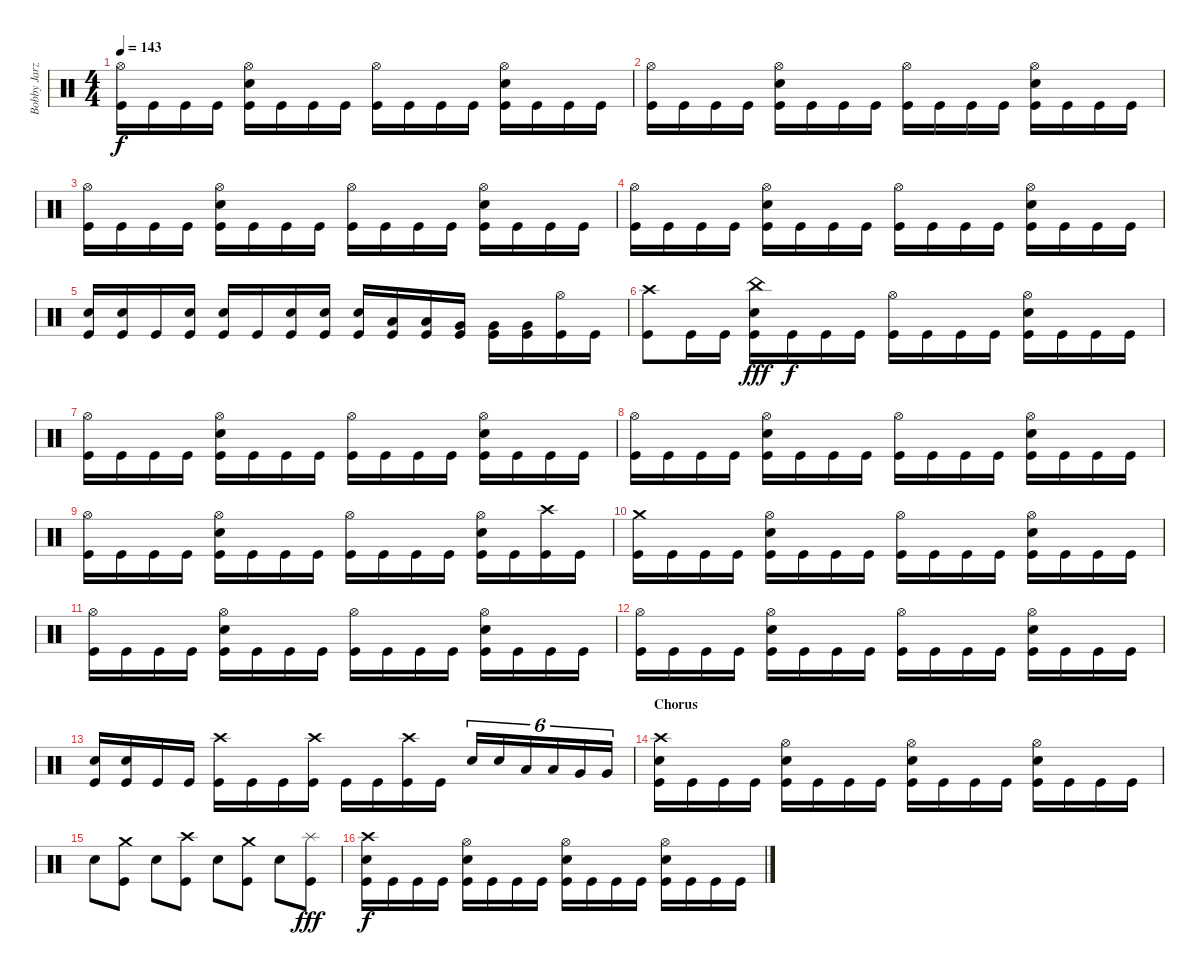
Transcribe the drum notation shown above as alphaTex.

\track ("Bobby Jarzombek" "Bobby Jarz") {instrument percussion}
\staff {score}
\articulation defaults
\ts (4 4)
\tempo 143
\clef neutral
\ks c
("Hi-Hat (open)" "Kick (hit)").16{dy f} "Kick (hit)".16 "Kick (hit)".16 "Kick (hit)".16 ("Hi-Hat (open)" "Electric Snare (hit)" "Kick (hit)").16 "Kick (hit)".16 "Kick (hit)".16 "Kick (hit)".16 ("Hi-Hat (open)" "Kick (hit)").16 "Kick (hit)".16 "Kick (hit)".16 "Kick (hit)".16 ("Hi-Hat (open)" "Electric Snare (hit)" "Kick (hit)").16 "Kick (hit)".16 "Kick (hit)".16 "Kick (hit)".16 |
("Hi-Hat (open)" "Kick (hit)").16 "Kick (hit)".16 "Kick (hit)".16 "Kick (hit)".16 ("Hi-Hat (open)" "Electric Snare (hit)" "Kick (hit)").16 "Kick (hit)".16 "Kick (hit)".16 "Kick (hit)".16 ("Hi-Hat (open)" "Kick (hit)").16 "Kick (hit)".16 "Kick (hit)".16 "Kick (hit)".16 ("Hi-Hat (open)" "Electric Snare (hit)" "Kick (hit)").16 "Kick (hit)".16 "Kick (hit)".16 "Kick (hit)".16 |
("Hi-Hat (open)" "Kick (hit)").16 "Kick (hit)".16 "Kick (hit)".16 "Kick (hit)".16 ("Hi-Hat (open)" "Electric Snare (hit)" "Kick (hit)").16 "Kick (hit)".16 "Kick (hit)".16 "Kick (hit)".16 ("Hi-Hat (open)" "Kick (hit)").16 "Kick (hit)".16 "Kick (hit)".16 "Kick (hit)".16 ("Hi-Hat (open)" "Electric Snare (hit)" "Kick (hit)").16 "Kick (hit)".16 "Kick (hit)".16 "Kick (hit)".16 |
("Hi-Hat (open)" "Kick (hit)").16 "Kick (hit)".16 "Kick (hit)".16 "Kick (hit)".16 ("Hi-Hat (open)" "Electric Snare (hit)" "Kick (hit)").16 "Kick (hit)".16 "Kick (hit)".16 "Kick (hit)".16 ("Hi-Hat (open)" "Kick (hit)").16 "Kick (hit)".16 "Kick (hit)".16 "Kick (hit)".16 ("Hi-Hat (open)" "Electric Snare (hit)" "Kick (hit)").16 "Kick (hit)".16 "Kick (hit)".16 "Kick (hit)".16 |
("Electric Snare (hit)" "Kick (hit)").16 ("Electric Snare (hit)" "Kick (hit)").16 "Kick (hit)".16 ("Electric Snare (hit)" "Kick (hit)").16 ("Electric Snare (hit)" "Kick (hit)").16 "Kick (hit)".16 ("Electric Snare (hit)" "Kick (hit)").16 ("Electric Snare (hit)" "Kick (hit)").16 ("Electric Snare (hit)" "Kick (hit)").16 ("Low Tom (hit)" "Kick (hit)").16 ("Low Tom (hit)" "Kick (hit)").16 ("Very Low Tom (hit)" "Kick (hit)").16 ("Very Low Tom (hit)" "Kick (hit)").16 ("Very Low Tom (hit)" "Kick (hit)").16 ("Hi-Hat (open)" "Kick (hit)").16 "Kick (hit)".16 |
("Crash high (hit)" "Kick (hit)").8 "Kick (hit)".16 "Kick (hit)".16 ("China (hit)" "Electric Snare (hit)" "Kick (hit)").16{dy fff} "Kick (hit)".16{dy f} "Kick (hit)".16 "Kick (hit)".16 ("Hi-Hat (open)" "Kick (hit)").16 "Kick (hit)".16 "Kick (hit)".16 "Kick (hit)".16 ("Hi-Hat (open)" "Electric Snare (hit)" "Kick (hit)").16 "Kick (hit)".16 "Kick (hit)".16 "Kick (hit)".16 |
("Hi-Hat (open)" "Kick (hit)").16 "Kick (hit)".16 "Kick (hit)".16 "Kick (hit)".16 ("Hi-Hat (open)" "Electric Snare (hit)" "Kick (hit)").16 "Kick (hit)".16 "Kick (hit)".16 "Kick (hit)".16 ("Hi-Hat (open)" "Kick (hit)").16 "Kick (hit)".16 "Kick (hit)".16 "Kick (hit)".16 ("Hi-Hat (open)" "Electric Snare (hit)" "Kick (hit)").16 "Kick (hit)".16 "Kick (hit)".16 "Kick (hit)".16 |
("Hi-Hat (open)" "Kick (hit)").16 "Kick (hit)".16 "Kick (hit)".16 "Kick (hit)".16 ("Hi-Hat (open)" "Electric Snare (hit)" "Kick (hit)").16 "Kick (hit)".16 "Kick (hit)".16 "Kick (hit)".16 ("Hi-Hat (open)" "Kick (hit)").16 "Kick (hit)".16 "Kick (hit)".16 "Kick (hit)".16 ("Hi-Hat (open)" "Electric Snare (hit)" "Kick (hit)").16 "Kick (hit)".16 "Kick (hit)".16 "Kick (hit)".16 |
("Hi-Hat (open)" "Kick (hit)").16 "Kick (hit)".16 "Kick (hit)".16 "Kick (hit)".16 ("Hi-Hat (open)" "Electric Snare (hit)" "Kick (hit)").16 "Kick (hit)".16 "Kick (hit)".16 "Kick (hit)".16 ("Hi-Hat (open)" "Kick (hit)").16 "Kick (hit)".16 "Kick (hit)".16 "Kick (hit)".16 ("Hi-Hat (open)" "Electric Snare (hit)" "Kick (hit)").16 "Kick (hit)".16 ("Crash high (hit)" "Kick (hit)").16 "Kick (hit)".16 |
("Crash medium (hit)" "Kick (hit)").16 "Kick (hit)".16 "Kick (hit)".16 "Kick (hit)".16 ("Hi-Hat (open)" "Electric Snare (hit)" "Kick (hit)").16 "Kick (hit)".16 "Kick (hit)".16 "Kick (hit)".16 ("Hi-Hat (open)" "Kick (hit)").16 "Kick (hit)".16 "Kick (hit)".16 "Kick (hit)".16 ("Hi-Hat (open)" "Electric Snare (hit)" "Kick (hit)").16 "Kick (hit)".16 "Kick (hit)".16 "Kick (hit)".16 |
("Hi-Hat (open)" "Kick (hit)").16 "Kick (hit)".16 "Kick (hit)".16 "Kick (hit)".16 ("Hi-Hat (open)" "Electric Snare (hit)" "Kick (hit)").16 "Kick (hit)".16 "Kick (hit)".16 "Kick (hit)".16 ("Hi-Hat (open)" "Kick (hit)").16 "Kick (hit)".16 "Kick (hit)".16 "Kick (hit)".16 ("Hi-Hat (open)" "Electric Snare (hit)" "Kick (hit)").16 "Kick (hit)".16 "Kick (hit)".16 "Kick (hit)".16 |
("Hi-Hat (open)" "Kick (hit)").16 "Kick (hit)".16 "Kick (hit)".16 "Kick (hit)".16 ("Hi-Hat (open)" "Electric Snare (hit)" "Kick (hit)").16 "Kick (hit)".16 "Kick (hit)".16 "Kick (hit)".16 ("Hi-Hat (open)" "Kick (hit)").16 "Kick (hit)".16 "Kick (hit)".16 "Kick (hit)".16 ("Hi-Hat (open)" "Electric Snare (hit)" "Kick (hit)").16 "Kick (hit)".16 "Kick (hit)".16 "Kick (hit)".16 |
("Electric Snare (hit)" "Kick (hit)").16 ("Electric Snare (hit)" "Kick (hit)").16 "Kick (hit)".16 "Kick (hit)".16 ("Crash high (hit)" "Kick (hit)").16 "Kick (hit)".16 "Kick (hit)".16 ("Crash high (hit)" "Kick (hit)").16 "Kick (hit)".16 "Kick (hit)".16 ("Crash high (hit)" "Kick (hit)").16 "Kick (hit)".16 "Electric Snare (hit)".16{tu (6 4)} "Electric Snare (hit)".16{tu (6 4)} "Low Tom (hit)".16{tu (6 4)} "Low Tom (hit)".16{tu (6 4)} "Very Low Tom (hit)".16{tu (6 4)} "Very Low Tom (hit)".16{tu (6 4)} |
\section ("" "Chorus")
("Crash high (hit)" "Electric Snare (hit)" "Kick (hit)").16 "Kick (hit)".16 "Kick (hit)".16 "Kick (hit)".16 ("Hi-Hat (open)" "Electric Snare (hit)" "Kick (hit)").16 "Kick (hit)".16 "Kick (hit)".16 "Kick (hit)".16 ("Hi-Hat (open)" "Electric Snare (hit)" "Kick (hit)").16 "Kick (hit)".16 "Kick (hit)".16 "Kick (hit)".16 ("Hi-Hat (open)" "Electric Snare (hit)" "Kick (hit)").16 "Kick (hit)".16 "Kick (hit)".16 "Kick (hit)".16 |
"Electric Snare (hit)".8 ("Crash medium (hit)" "Kick (hit)").8 "Electric Snare (hit)".8 ("Crash high (hit)" "Kick (hit)").8 "Electric Snare (hit)".8 ("Crash medium (hit)" "Kick (hit)").8 "Electric Snare (hit)".8 ("Splash (hit)" "Kick (hit)").8{dy fff} |
("Crash high (hit)" "Electric Snare (hit)" "Kick (hit)").16{dy f} "Kick (hit)".16 "Kick (hit)".16 "Kick (hit)".16 ("Hi-Hat (open)" "Electric Snare (hit)" "Kick (hit)").16 "Kick (hit)".16 "Kick (hit)".16 "Kick (hit)".16 ("Hi-Hat (open)" "Electric Snare (hit)" "Kick (hit)").16 "Kick (hit)".16 "Kick (hit)".16 "Kick (hit)".16 ("Hi-Hat (open)" "Electric Snare (hit)" "Kick (hit)").16 "Kick (hit)".16 "Kick (hit)".16 "Kick (hit)".16
